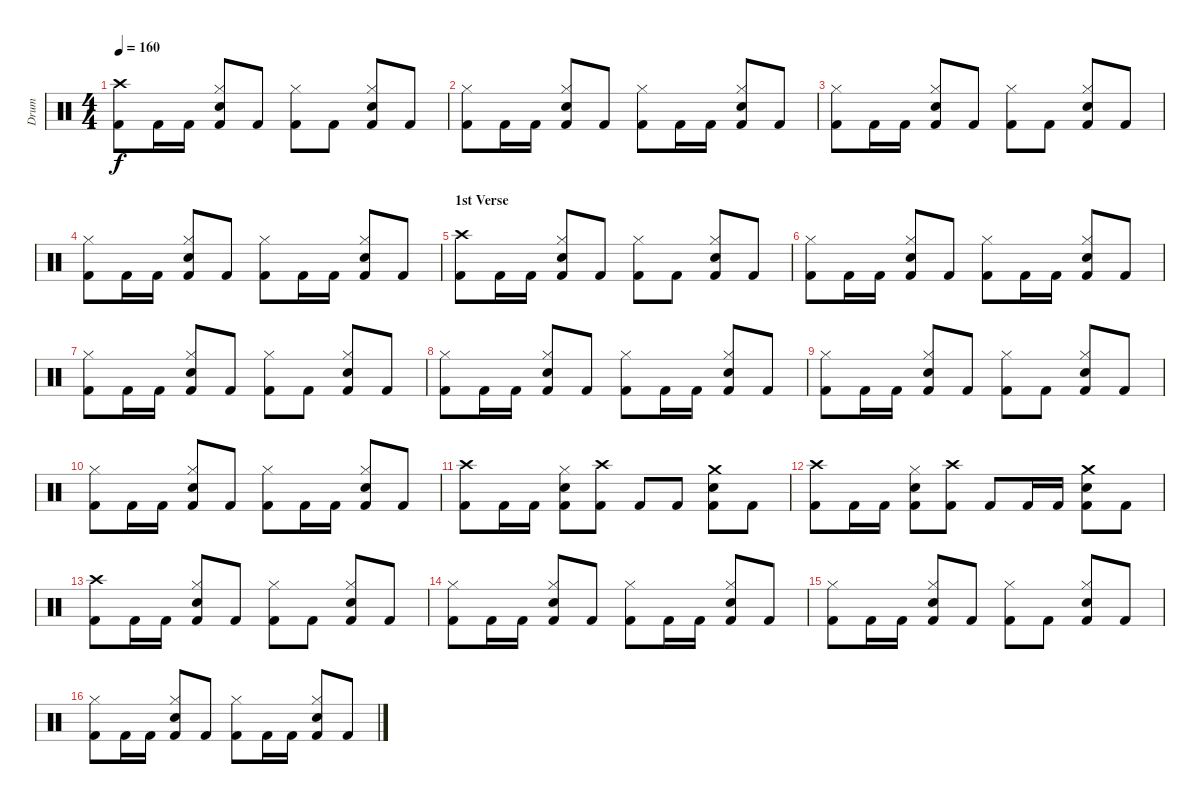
\track ("Drum" "Drum") {instrument percussion}
\staff {score}
\articulation defaults
\ts (4 4)
\tempo 160
\clef neutral
\ks c
("Crash high (hit)" "Kick (hit) 2").8{dy f} "Kick (hit) 2".16 "Kick (hit) 2".16 ("Hi-Hat (closed)" "Electric Snare (hit)" "Kick (hit) 2").8 "Kick (hit) 2".8 ("Hi-Hat (closed)" "Kick (hit) 2").8 "Kick (hit) 2".8 ("Hi-Hat (closed)" "Electric Snare (hit)" "Kick (hit) 2").8 "Kick (hit) 2".8 |
("Hi-Hat (closed)" "Kick (hit) 2").8 "Kick (hit) 2".16 "Kick (hit) 2".16 ("Hi-Hat (closed)" "Electric Snare (hit)" "Kick (hit) 2").8 "Kick (hit) 2".8 ("Hi-Hat (closed)" "Kick (hit) 2").8 "Kick (hit) 2".16 "Kick (hit) 2".16 ("Hi-Hat (closed)" "Electric Snare (hit)" "Kick (hit) 2").8 "Kick (hit) 2".8 |
("Hi-Hat (closed)" "Kick (hit) 2").8 "Kick (hit) 2".16 "Kick (hit) 2".16 ("Hi-Hat (closed)" "Electric Snare (hit)" "Kick (hit) 2").8 "Kick (hit) 2".8 ("Hi-Hat (closed)" "Kick (hit) 2").8 "Kick (hit) 2".8 ("Hi-Hat (closed)" "Electric Snare (hit)" "Kick (hit) 2").8 "Kick (hit) 2".8 |
("Hi-Hat (closed)" "Kick (hit) 2").8 "Kick (hit) 2".16 "Kick (hit) 2".16 ("Hi-Hat (closed)" "Electric Snare (hit)" "Kick (hit) 2").8 "Kick (hit) 2".8 ("Hi-Hat (closed)" "Kick (hit) 2").8 "Kick (hit) 2".16 "Kick (hit) 2".16 ("Hi-Hat (closed)" "Electric Snare (hit)" "Kick (hit) 2").8 "Kick (hit) 2".8 |
\section ("" "1st Verse")
("Crash high (hit)" "Kick (hit) 2").8 "Kick (hit) 2".16 "Kick (hit) 2".16 ("Hi-Hat (closed)" "Electric Snare (hit)" "Kick (hit) 2").8 "Kick (hit) 2".8 ("Hi-Hat (closed)" "Kick (hit) 2").8 "Kick (hit) 2".8 ("Hi-Hat (closed)" "Electric Snare (hit)" "Kick (hit) 2").8 "Kick (hit) 2".8 |
("Hi-Hat (closed)" "Kick (hit) 2").8 "Kick (hit) 2".16 "Kick (hit) 2".16 ("Hi-Hat (closed)" "Electric Snare (hit)" "Kick (hit) 2").8 "Kick (hit) 2".8 ("Hi-Hat (closed)" "Kick (hit) 2").8 "Kick (hit) 2".16 "Kick (hit) 2".16 ("Hi-Hat (closed)" "Electric Snare (hit)" "Kick (hit) 2").8 "Kick (hit) 2".8 |
("Hi-Hat (closed)" "Kick (hit) 2").8 "Kick (hit) 2".16 "Kick (hit) 2".16 ("Hi-Hat (closed)" "Electric Snare (hit)" "Kick (hit) 2").8 "Kick (hit) 2".8 ("Hi-Hat (closed)" "Kick (hit) 2").8 "Kick (hit) 2".8 ("Hi-Hat (closed)" "Electric Snare (hit)" "Kick (hit) 2").8 "Kick (hit) 2".8 |
("Hi-Hat (closed)" "Kick (hit) 2").8 "Kick (hit) 2".16 "Kick (hit) 2".16 ("Hi-Hat (closed)" "Electric Snare (hit)" "Kick (hit) 2").8 "Kick (hit) 2".8 ("Hi-Hat (closed)" "Kick (hit) 2").8 "Kick (hit) 2".16 "Kick (hit) 2".16 ("Hi-Hat (closed)" "Electric Snare (hit)" "Kick (hit) 2").8 "Kick (hit) 2".8 |
("Hi-Hat (closed)" "Kick (hit) 2").8 "Kick (hit) 2".16 "Kick (hit) 2".16 ("Hi-Hat (closed)" "Electric Snare (hit)" "Kick (hit) 2").8 "Kick (hit) 2".8 ("Hi-Hat (closed)" "Kick (hit) 2").8 "Kick (hit) 2".8 ("Hi-Hat (closed)" "Electric Snare (hit)" "Kick (hit) 2").8 "Kick (hit) 2".8 |
("Hi-Hat (closed)" "Kick (hit) 2").8 "Kick (hit) 2".16 "Kick (hit) 2".16 ("Hi-Hat (closed)" "Electric Snare (hit)" "Kick (hit) 2").8 "Kick (hit) 2".8 ("Hi-Hat (closed)" "Kick (hit) 2").8 "Kick (hit) 2".16 "Kick (hit) 2".16 ("Hi-Hat (closed)" "Electric Snare (hit)" "Kick (hit) 2").8 "Kick (hit) 2".8 |
("Crash high (hit)" "Kick (hit) 2").8 "Kick (hit) 2".16 "Kick (hit) 2".16 ("Hi-Hat (closed)" "Electric Snare (hit)" "Kick (hit) 2").8 ("Crash high (hit)" "Kick (hit) 2").8 "Kick (hit) 2".8 "Kick (hit) 2".8 ("Crash medium (hit)" "Electric Snare (hit)" "Kick (hit) 2").8 "Kick (hit) 2".8 |
("Crash high (hit)" "Kick (hit) 2").8 "Kick (hit) 2".16 "Kick (hit) 2".16 ("Hi-Hat (closed)" "Electric Snare (hit)" "Kick (hit) 2").8 ("Crash high (hit)" "Kick (hit) 2").8 "Kick (hit) 2".8 "Kick (hit) 2".16 "Kick (hit) 2".16 ("Crash medium (hit)" "Electric Snare (hit)" "Kick (hit) 2").8 "Kick (hit) 2".8 |
("Crash high (hit)" "Kick (hit) 2").8 "Kick (hit) 2".16 "Kick (hit) 2".16 ("Hi-Hat (closed)" "Electric Snare (hit)" "Kick (hit) 2").8 "Kick (hit) 2".8 ("Hi-Hat (closed)" "Kick (hit) 2").8 "Kick (hit) 2".8 ("Hi-Hat (closed)" "Electric Snare (hit)" "Kick (hit) 2").8 "Kick (hit) 2".8 |
("Hi-Hat (closed)" "Kick (hit) 2").8 "Kick (hit) 2".16 "Kick (hit) 2".16 ("Hi-Hat (closed)" "Electric Snare (hit)" "Kick (hit) 2").8 "Kick (hit) 2".8 ("Hi-Hat (closed)" "Kick (hit) 2").8 "Kick (hit) 2".16 "Kick (hit) 2".16 ("Hi-Hat (closed)" "Electric Snare (hit)" "Kick (hit) 2").8 "Kick (hit) 2".8 |
("Hi-Hat (closed)" "Kick (hit) 2").8 "Kick (hit) 2".16 "Kick (hit) 2".16 ("Hi-Hat (closed)" "Electric Snare (hit)" "Kick (hit) 2").8 "Kick (hit) 2".8 ("Hi-Hat (closed)" "Kick (hit) 2").8 "Kick (hit) 2".8 ("Hi-Hat (closed)" "Electric Snare (hit)" "Kick (hit) 2").8 "Kick (hit) 2".8 |
("Hi-Hat (closed)" "Kick (hit) 2").8 "Kick (hit) 2".16 "Kick (hit) 2".16 ("Hi-Hat (closed)" "Electric Snare (hit)" "Kick (hit) 2").8 "Kick (hit) 2".8 ("Hi-Hat (closed)" "Kick (hit) 2").8 "Kick (hit) 2".16 "Kick (hit) 2".16 ("Hi-Hat (closed)" "Electric Snare (hit)" "Kick (hit) 2").8 "Kick (hit) 2".8
